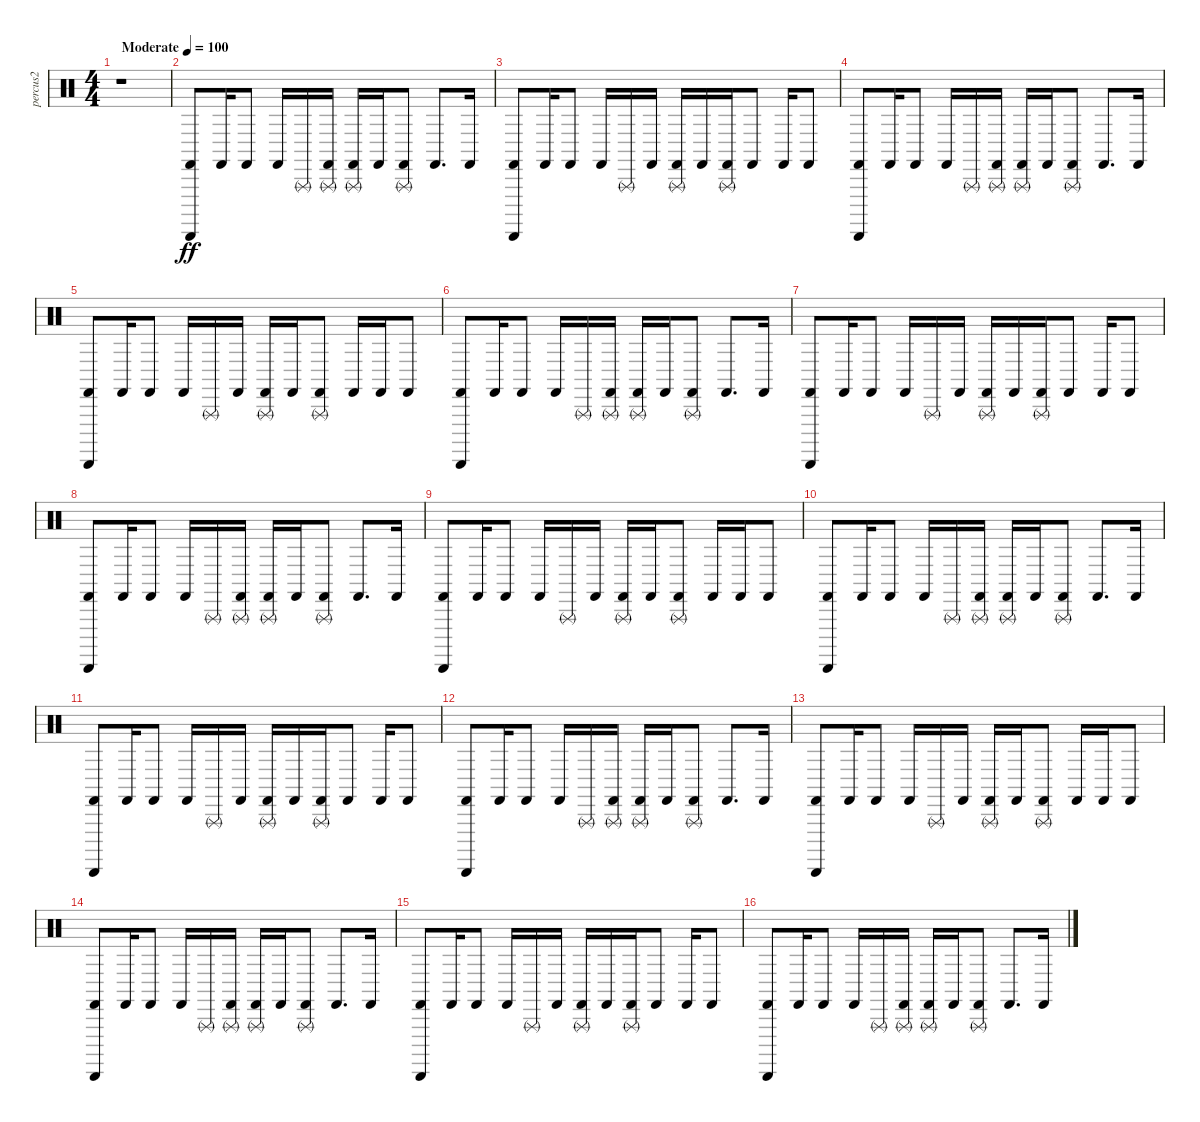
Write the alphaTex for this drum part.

\track ("percus2" "percus2") {instrument percussion}
\staff {score}
\articulation defaults
\ts (4 4)
\tempo (100 "Moderate")
\clef neutral
\ks c
r.1{dy ff} |
("Guiro (scrap-return)" "Castanets (hit)").8 "Castanets (hit)".16 "Castanets (hit)".8 "Castanets (hit)".16 "Triangle (rnute)".16 ("Triangle (rnute)" "Castanets (hit)").16 ("Triangle (rnute)" "Castanets (hit)").16 "Castanets (hit)".16 ("Triangle (rnute)" "Castanets (hit)").8 "Castanets (hit)".8{d} "Castanets (hit)".16 |
("Guiro (scrap-return)" "Castanets (hit)").8 "Castanets (hit)".16 "Castanets (hit)".8 "Castanets (hit)".16 "Triangle (rnute)".16 "Castanets (hit)".16 ("Triangle (rnute)" "Castanets (hit)").16 "Castanets (hit)".16 ("Triangle (rnute)" "Castanets (hit)").16 "Castanets (hit)".8 "Castanets (hit)".16 "Castanets (hit)".8 |
("Guiro (scrap-return)" "Castanets (hit)").8 "Castanets (hit)".16 "Castanets (hit)".8 "Castanets (hit)".16 "Triangle (rnute)".16 ("Triangle (rnute)" "Castanets (hit)").16 ("Triangle (rnute)" "Castanets (hit)").16 "Castanets (hit)".16 ("Triangle (rnute)" "Castanets (hit)").8 "Castanets (hit)".8{d} "Castanets (hit)".16 |
("Guiro (scrap-return)" "Castanets (hit)").8 "Castanets (hit)".16 "Castanets (hit)".8 "Castanets (hit)".16 "Triangle (rnute)".16 "Castanets (hit)".16 ("Triangle (rnute)" "Castanets (hit)").16 "Castanets (hit)".16 ("Triangle (rnute)" "Castanets (hit)").8 "Castanets (hit)".16 "Castanets (hit)".16 "Castanets (hit)".8 |
("Guiro (scrap-return)" "Castanets (hit)").8 "Castanets (hit)".16 "Castanets (hit)".8 "Castanets (hit)".16 "Triangle (rnute)".16 ("Triangle (rnute)" "Castanets (hit)").16 ("Triangle (rnute)" "Castanets (hit)").16 "Castanets (hit)".16 ("Triangle (rnute)" "Castanets (hit)").8 "Castanets (hit)".8{d} "Castanets (hit)".16 |
("Guiro (scrap-return)" "Castanets (hit)").8 "Castanets (hit)".16 "Castanets (hit)".8 "Castanets (hit)".16 "Triangle (rnute)".16 "Castanets (hit)".16 ("Triangle (rnute)" "Castanets (hit)").16 "Castanets (hit)".16 ("Triangle (rnute)" "Castanets (hit)").16 "Castanets (hit)".8 "Castanets (hit)".16 "Castanets (hit)".8 |
("Guiro (scrap-return)" "Castanets (hit)").8 "Castanets (hit)".16 "Castanets (hit)".8 "Castanets (hit)".16 "Triangle (rnute)".16 ("Triangle (rnute)" "Castanets (hit)").16 ("Triangle (rnute)" "Castanets (hit)").16 "Castanets (hit)".16 ("Triangle (rnute)" "Castanets (hit)").8 "Castanets (hit)".8{d} "Castanets (hit)".16 |
("Guiro (scrap-return)" "Castanets (hit)").8 "Castanets (hit)".16 "Castanets (hit)".8 "Castanets (hit)".16 "Triangle (rnute)".16 "Castanets (hit)".16 ("Triangle (rnute)" "Castanets (hit)").16 "Castanets (hit)".16 ("Triangle (rnute)" "Castanets (hit)").8 "Castanets (hit)".16 "Castanets (hit)".16 "Castanets (hit)".8 |
("Guiro (scrap-return)" "Castanets (hit)").8 "Castanets (hit)".16 "Castanets (hit)".8 "Castanets (hit)".16 "Triangle (rnute)".16 ("Triangle (rnute)" "Castanets (hit)").16 ("Triangle (rnute)" "Castanets (hit)").16 "Castanets (hit)".16 ("Triangle (rnute)" "Castanets (hit)").8 "Castanets (hit)".8{d} "Castanets (hit)".16 |
("Guiro (scrap-return)" "Castanets (hit)").8 "Castanets (hit)".16 "Castanets (hit)".8 "Castanets (hit)".16 "Triangle (rnute)".16 "Castanets (hit)".16 ("Triangle (rnute)" "Castanets (hit)").16 "Castanets (hit)".16 ("Triangle (rnute)" "Castanets (hit)").16 "Castanets (hit)".8 "Castanets (hit)".16 "Castanets (hit)".8 |
("Guiro (scrap-return)" "Castanets (hit)").8 "Castanets (hit)".16 "Castanets (hit)".8 "Castanets (hit)".16 "Triangle (rnute)".16 ("Triangle (rnute)" "Castanets (hit)").16 ("Triangle (rnute)" "Castanets (hit)").16 "Castanets (hit)".16 ("Triangle (rnute)" "Castanets (hit)").8 "Castanets (hit)".8{d} "Castanets (hit)".16 |
("Guiro (scrap-return)" "Castanets (hit)").8 "Castanets (hit)".16 "Castanets (hit)".8 "Castanets (hit)".16 "Triangle (rnute)".16 "Castanets (hit)".16 ("Triangle (rnute)" "Castanets (hit)").16 "Castanets (hit)".16 ("Triangle (rnute)" "Castanets (hit)").8 "Castanets (hit)".16 "Castanets (hit)".16 "Castanets (hit)".8 |
("Guiro (scrap-return)" "Castanets (hit)").8 "Castanets (hit)".16 "Castanets (hit)".8 "Castanets (hit)".16 "Triangle (rnute)".16 ("Triangle (rnute)" "Castanets (hit)").16 ("Triangle (rnute)" "Castanets (hit)").16 "Castanets (hit)".16 ("Triangle (rnute)" "Castanets (hit)").8 "Castanets (hit)".8{d} "Castanets (hit)".16 |
("Guiro (scrap-return)" "Castanets (hit)").8 "Castanets (hit)".16 "Castanets (hit)".8 "Castanets (hit)".16 "Triangle (rnute)".16 "Castanets (hit)".16 ("Triangle (rnute)" "Castanets (hit)").16 "Castanets (hit)".16 ("Triangle (rnute)" "Castanets (hit)").16 "Castanets (hit)".8 "Castanets (hit)".16 "Castanets (hit)".8 |
("Guiro (scrap-return)" "Castanets (hit)").8 "Castanets (hit)".16 "Castanets (hit)".8 "Castanets (hit)".16 "Triangle (rnute)".16 ("Triangle (rnute)" "Castanets (hit)").16 ("Triangle (rnute)" "Castanets (hit)").16 "Castanets (hit)".16 ("Triangle (rnute)" "Castanets (hit)").8 "Castanets (hit)".8{d} "Castanets (hit)".16
